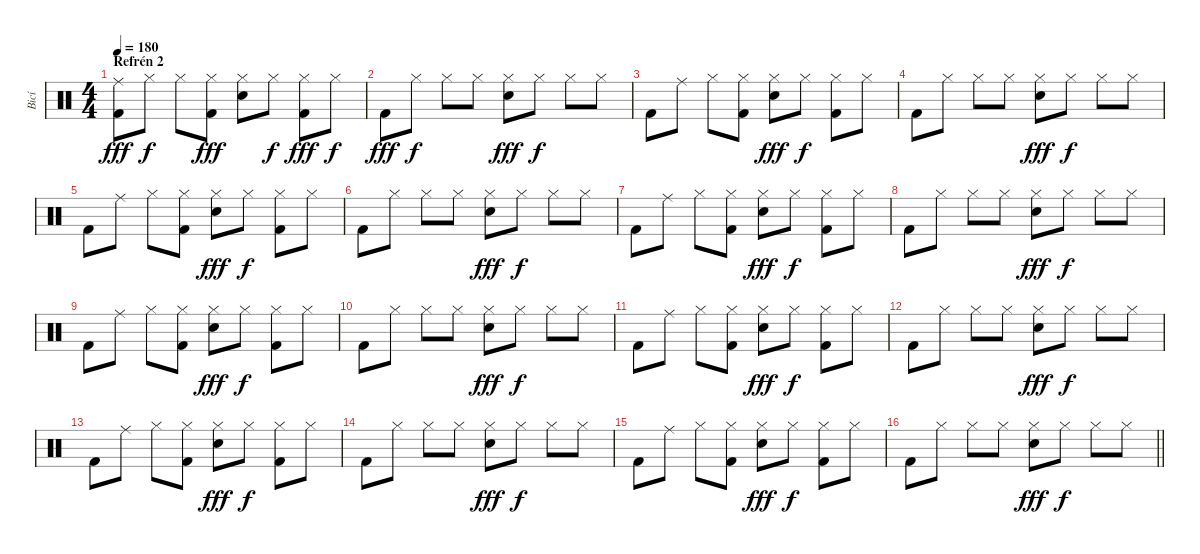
\track ("Bicí" "Bicí") {instrument percussion}
\staff {score}
\articulation defaults
\ts (4 4)
\section ("" "Refrén 2")
\tempo 180
\clef neutral
\ks c
("Kick (hit) 2" "Ride (middle)").8{dy fff} "Hi-Hat (closed)".8{dy f} "Hi-Hat (closed)".8 ("Kick (hit) 2" "Hi-Hat (closed)").8{dy fff} ("Hand Clap (hit)" "Hi-Hat (closed)").8 "Hi-Hat (closed)".8{dy f} ("Kick (hit) 2" "Hi-Hat (closed)").8{dy fff} "Hi-Hat (closed)".8{dy f} |
"Kick (hit) 2".8{dy fff} "Hi-Hat (closed)".8{dy f} "Hi-Hat (closed)".8 "Hi-Hat (closed)".8 ("Hand Clap (hit)" "Hi-Hat (closed)").8{dy fff} "Hi-Hat (closed)".8{dy f} "Hi-Hat (closed)".8 "Hi-Hat (closed)".8 |
"Kick (hit) 2".8 "Ride (middle)".8 "Hi-Hat (closed)".8 ("Kick (hit) 2" "Hi-Hat (closed)").8 ("Hand Clap (hit)" "Hi-Hat (closed)").8{dy fff} "Hi-Hat (closed)".8{dy f} ("Kick (hit) 2" "Hi-Hat (closed)").8 "Hi-Hat (closed)".8 |
"Kick (hit) 2".8 "Hi-Hat (closed)".8 "Hi-Hat (closed)".8 "Hi-Hat (closed)".8 ("Hand Clap (hit)" "Hi-Hat (closed)").8{dy fff} "Hi-Hat (closed)".8{dy f} "Hi-Hat (closed)".8 "Hi-Hat (closed)".8 |
"Kick (hit) 2".8 "Ride (middle)".8 "Hi-Hat (closed)".8 ("Kick (hit) 2" "Hi-Hat (closed)").8 ("Hand Clap (hit)" "Hi-Hat (closed)").8{dy fff} "Hi-Hat (closed)".8{dy f} ("Kick (hit) 2" "Hi-Hat (closed)").8 "Hi-Hat (closed)".8 |
"Kick (hit) 2".8 "Hi-Hat (closed)".8 "Hi-Hat (closed)".8 "Hi-Hat (closed)".8 ("Hand Clap (hit)" "Hi-Hat (closed)").8{dy fff} "Hi-Hat (closed)".8{dy f} "Hi-Hat (closed)".8 "Hi-Hat (closed)".8 |
"Kick (hit) 2".8 "Ride (middle)".8 "Hi-Hat (closed)".8 ("Kick (hit) 2" "Hi-Hat (closed)").8 ("Hand Clap (hit)" "Hi-Hat (closed)").8{dy fff} "Hi-Hat (closed)".8{dy f} ("Kick (hit) 2" "Hi-Hat (closed)").8 "Hi-Hat (closed)".8 |
"Kick (hit) 2".8 "Hi-Hat (closed)".8 "Hi-Hat (closed)".8 "Hi-Hat (closed)".8 ("Hand Clap (hit)" "Hi-Hat (closed)").8{dy fff} "Hi-Hat (closed)".8{dy f} "Hi-Hat (closed)".8 "Hi-Hat (closed)".8 |
"Kick (hit) 2".8 "Ride (middle)".8 "Hi-Hat (closed)".8 ("Kick (hit) 2" "Hi-Hat (closed)").8 ("Hand Clap (hit)" "Hi-Hat (closed)").8{dy fff} "Hi-Hat (closed)".8{dy f} ("Kick (hit) 2" "Hi-Hat (closed)").8 "Hi-Hat (closed)".8 |
"Kick (hit) 2".8 "Hi-Hat (closed)".8 "Hi-Hat (closed)".8 "Hi-Hat (closed)".8 ("Hand Clap (hit)" "Hi-Hat (closed)").8{dy fff} "Hi-Hat (closed)".8{dy f} "Hi-Hat (closed)".8 "Hi-Hat (closed)".8 |
"Kick (hit) 2".8 "Ride (middle)".8 "Hi-Hat (closed)".8 ("Kick (hit) 2" "Hi-Hat (closed)").8 ("Hand Clap (hit)" "Hi-Hat (closed)").8{dy fff} "Hi-Hat (closed)".8{dy f} ("Kick (hit) 2" "Hi-Hat (closed)").8 "Hi-Hat (closed)".8 |
"Kick (hit) 2".8 "Hi-Hat (closed)".8 "Hi-Hat (closed)".8 "Hi-Hat (closed)".8 ("Hand Clap (hit)" "Hi-Hat (closed)").8{dy fff} "Hi-Hat (closed)".8{dy f} "Hi-Hat (closed)".8 "Hi-Hat (closed)".8 |
"Kick (hit) 2".8 "Ride (middle)".8 "Hi-Hat (closed)".8 ("Kick (hit) 2" "Hi-Hat (closed)").8 ("Hand Clap (hit)" "Hi-Hat (closed)").8{dy fff} "Hi-Hat (closed)".8{dy f} ("Kick (hit) 2" "Hi-Hat (closed)").8 "Hi-Hat (closed)".8 |
"Kick (hit) 2".8 "Hi-Hat (closed)".8 "Hi-Hat (closed)".8 "Hi-Hat (closed)".8 ("Hand Clap (hit)" "Hi-Hat (closed)").8{dy fff} "Hi-Hat (closed)".8{dy f} "Hi-Hat (closed)".8 "Hi-Hat (closed)".8 |
"Kick (hit) 2".8 "Ride (middle)".8 "Hi-Hat (closed)".8 ("Kick (hit) 2" "Hi-Hat (closed)").8 ("Hand Clap (hit)" "Hi-Hat (closed)").8{dy fff} "Hi-Hat (closed)".8{dy f} ("Kick (hit) 2" "Hi-Hat (closed)").8 "Hi-Hat (closed)".8 |
\barLineRight lightlight "Kick (hit) 2".8 "Hi-Hat (closed)".8 "Hi-Hat (closed)".8 "Hi-Hat (closed)".8
("Hand Clap (hit)" "Hi-Hat (closed)").8{dy fff} "Hi-Hat (closed)".8{dy f} "Hi-Hat (closed)".8 "Hi-Hat (closed)".8
